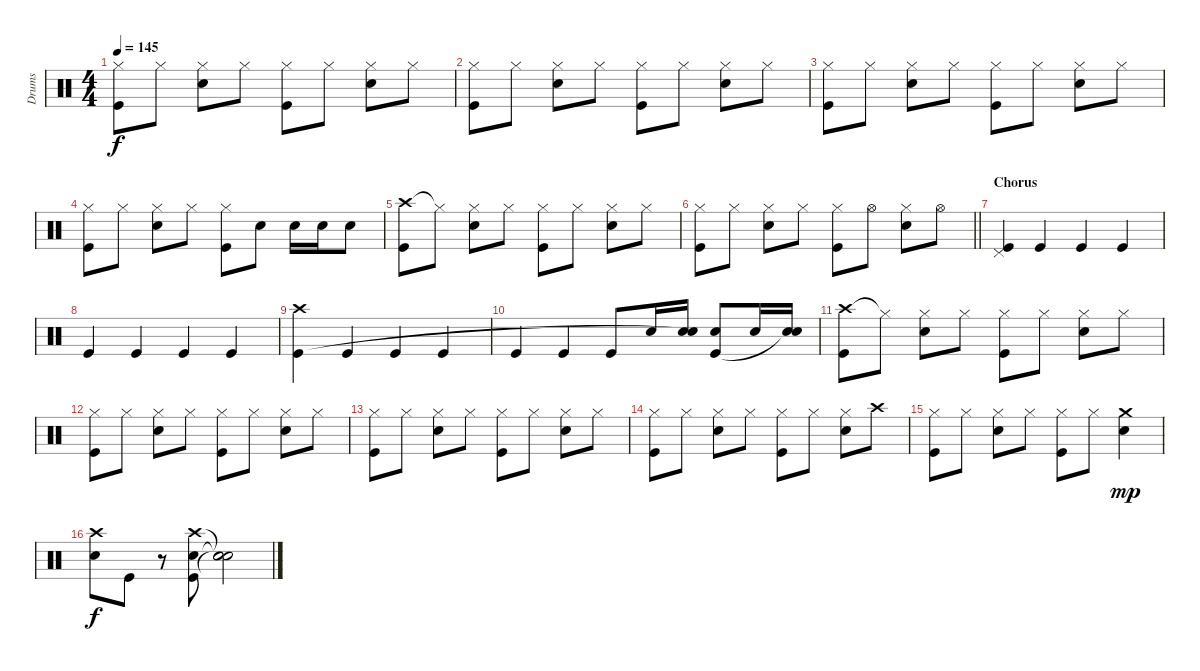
\track ("Drums" "Drums") {instrument percussion}
\staff {score}
\articulation defaults
\ts (4 4)
\tempo 145
\clef neutral
\ks c
("Hi-Hat (closed)" "Kick (hit)").8{dy f} "Hi-Hat (closed)".8 ("Hi-Hat (closed)" "Electric Snare (hit)").8 "Hi-Hat (closed)".8 ("Hi-Hat (closed)" "Kick (hit)").8 "Hi-Hat (closed)".8 ("Hi-Hat (closed)" "Electric Snare (hit)").8 "Hi-Hat (closed)".8 |
("Hi-Hat (closed)" "Kick (hit)").8 "Hi-Hat (closed)".8 ("Hi-Hat (closed)" "Electric Snare (hit)").8 "Hi-Hat (closed)".8 ("Hi-Hat (closed)" "Kick (hit)").8 "Hi-Hat (closed)".8 ("Hi-Hat (closed)" "Electric Snare (hit)").8 "Hi-Hat (closed)".8 |
("Hi-Hat (closed)" "Kick (hit)").8 "Hi-Hat (closed)".8 ("Hi-Hat (closed)" "Electric Snare (hit)").8 "Hi-Hat (closed)".8 ("Hi-Hat (closed)" "Kick (hit)").8 "Hi-Hat (closed)".8 ("Hi-Hat (closed)" "Electric Snare (hit)").8 "Hi-Hat (closed)".8 |
("Hi-Hat (closed)" "Kick (hit)").8 "Hi-Hat (closed)".8 ("Hi-Hat (closed)" "Electric Snare (hit)").8 "Hi-Hat (closed)".8 ("Hi-Hat (closed)" "Kick (hit)").8 "Electric Snare (hit)".8 "Electric Snare (hit)".16 "Electric Snare (hit)".16 "Electric Snare (hit)".8 |
("Crash high (hit)" "Kick (hit)").8 "Hi-Hat (closed)"{t}.8 ("Hi-Hat (closed)" "Electric Snare (hit)").8 "Hi-Hat (closed)".8 ("Hi-Hat (closed)" "Kick (hit)").8 "Hi-Hat (closed)".8 ("Hi-Hat (closed)" "Electric Snare (hit)").8 "Hi-Hat (closed)".8 |
\barLineRight lightlight
("Hi-Hat (closed)" "Kick (hit)").8 "Hi-Hat (closed)".8 ("Hi-Hat (closed)" "Electric Snare (hit)").8 "Hi-Hat (closed)".8 ("Hi-Hat (closed)" "Kick (hit)").8 "Hi-Hat (open)".8 ("Hi-Hat (closed)" "Electric Snare (hit)").8 "Hi-Hat (open)".8 |
\section ("" "Chorus")
("Pedal Hi-Hat (hit)" "Kick (hit)").4 "Kick (hit)".4 "Kick (hit)".4 "Kick (hit)".4 |
"Kick (hit)".4 "Kick (hit)".4 "Kick (hit)".4 "Kick (hit)".4 |
("Crash high (hit)" "Kick (hit)").4 "Kick (hit)".4 "Kick (hit)".4 "Kick (hit)".4 |
"Kick (hit)".4 "Kick (hit)".4 "Kick (hit)".8 "Electric Snare (hit)".16 ("Electric Snare (hit)" "Snare (hit)"{t}).16 ("Electric Snare (hit)" "Kick (hit)").8 "Electric Snare (hit)".16 ("Electric Snare (hit)" "Snare (hit)"{t}).16 |
("Crash high (hit)" "Kick (hit)").8 "Hi-Hat (closed)"{t}.8 ("Hi-Hat (closed)" "Electric Snare (hit)").8 "Hi-Hat (closed)".8 ("Hi-Hat (closed)" "Kick (hit)").8 "Hi-Hat (closed)".8 ("Hi-Hat (closed)" "Electric Snare (hit)").8 "Hi-Hat (closed)".8 |
("Hi-Hat (closed)" "Kick (hit)").8 "Hi-Hat (closed)".8 ("Hi-Hat (closed)" "Electric Snare (hit)").8 "Hi-Hat (closed)".8 ("Hi-Hat (closed)" "Kick (hit)").8 "Hi-Hat (closed)".8 ("Hi-Hat (closed)" "Electric Snare (hit)").8 "Hi-Hat (closed)".8 |
("Hi-Hat (closed)" "Kick (hit)").8 "Hi-Hat (closed)".8 ("Hi-Hat (closed)" "Electric Snare (hit)").8 "Hi-Hat (closed)".8 ("Hi-Hat (closed)" "Kick (hit)").8 "Hi-Hat (closed)".8 ("Hi-Hat (closed)" "Electric Snare (hit)").8 "Hi-Hat (closed)".8 |
("Hi-Hat (closed)" "Kick (hit)").8 "Hi-Hat (closed)".8 ("Hi-Hat (closed)" "Electric Snare (hit)").8 "Hi-Hat (closed)".8 ("Hi-Hat (closed)" "Kick (hit)").8 "Hi-Hat (closed)".8 ("Hi-Hat (closed)" "Electric Snare (hit)").8 "Crash high (hit)".8 |
("Hi-Hat (closed)" "Kick (hit)").8 "Hi-Hat (closed)".8 ("Hi-Hat (closed)" "Electric Snare (hit)").8 "Hi-Hat (closed)".8 ("Hi-Hat (closed)" "Kick (hit)").8 "Hi-Hat (closed)".8 ("Crash medium (hit)" "Electric Snare (hit)").4{dy mp} |
("Crash high (hit)" "Electric Snare (hit)").8{dy f} "Kick (hit)".8 r.8 ("Crash high (hit)" "Electric Snare (hit)" "Kick (hit)").8 ("Snare (hit)"{t} "Snare (hit)"{t} "Snare (hit)"{t}).2
